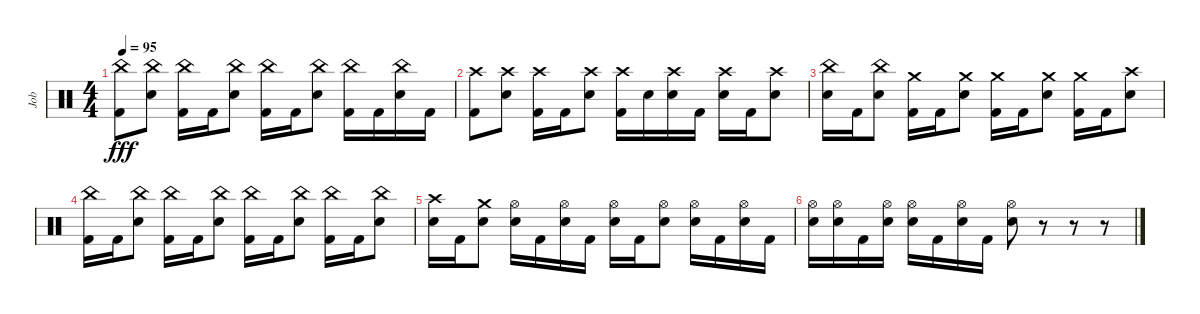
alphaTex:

\track ("Job" "Job") {instrument percussion}
\staff {score}
\articulation defaults
\ts (4 4)
\tempo 95
\clef neutral
\ks c
("China (hit)" "Kick (hit) 2").8{dy fff} ("China (hit)" "Electric Snare (hit)").8 ("China (hit)" "Kick (hit) 2").16 "Kick (hit) 2".16 ("China (hit)" "Electric Snare (hit)").8 ("China (hit)" "Kick (hit) 2").16 "Kick (hit) 2".16 ("China (hit)" "Electric Snare (hit)").8 ("China (hit)" "Kick (hit) 2").16 "Kick (hit) 2".16 ("China (hit)" "Electric Snare (hit)").16 "Kick (hit) 2".16 |
("Crash high (hit)" "Kick (hit) 2").8 ("Crash high (hit)" "Electric Snare (hit)").8 ("Crash high (hit)" "Kick (hit) 2").16 "Kick (hit) 2".16 ("Crash high (hit)" "Electric Snare (hit)").8 ("Crash high (hit)" "Kick (hit) 2").16 "Electric Snare (hit)".16 ("Crash high (hit)" "Electric Snare (hit)").16 "Kick (hit) 2".16 ("Crash high (hit)" "Electric Snare (hit)").16 "Kick (hit) 2".16 ("Crash high (hit)" "Electric Snare (hit)").8 |
("China (hit)" "Electric Snare (hit)").16 "Kick (hit) 2".16 ("China (hit)" "Electric Snare (hit)").8 ("Crash medium (hit)" "Kick (hit) 2").16 "Kick (hit) 2".16 ("Crash medium (hit)" "Electric Snare (hit)").8 ("Crash medium (hit)" "Kick (hit) 2").16 "Kick (hit) 2".16 ("Crash medium (hit)" "Electric Snare (hit)").8 ("Crash medium (hit)" "Kick (hit) 2").16 "Kick (hit) 2".16 ("Crash high (hit)" "Electric Snare (hit)").8 |
("China (hit)" "Kick (hit) 2").16 "Kick (hit) 2".16 ("China (hit)" "Electric Snare (hit)").8 ("China (hit)" "Kick (hit) 2").16 "Kick (hit) 2".16 ("China (hit)" "Electric Snare (hit)").8 ("China (hit)" "Kick (hit) 2").16 "Kick (hit) 2".16 ("China (hit)" "Electric Snare (hit)").8 ("China (hit)" "Kick (hit) 2").16 "Kick (hit) 2".16 ("China (hit)" "Electric Snare (hit)").8 |
("Crash high (hit)" "Electric Snare (hit)").16 "Kick (hit) 2".16 ("Crash medium (hit)" "Electric Snare (hit)").8 ("Hi-Hat (open)" "Electric Snare (hit)").16 "Kick (hit) 2".16 ("Hi-Hat (open)" "Electric Snare (hit)").16 "Kick (hit) 2".16 ("Hi-Hat (open)" "Electric Snare (hit)").16 "Kick (hit) 2".16 ("Hi-Hat (open)" "Electric Snare (hit)").8 ("Hi-Hat (open)" "Electric Snare (hit)").16 "Kick (hit) 2".16 ("Hi-Hat (open)" "Electric Snare (hit)").16 "Kick (hit) 2".16 |
("Hi-Hat (open)" "Electric Snare (hit)").16 ("Hi-Hat (open)" "Electric Snare (hit)").16 "Kick (hit) 2".16 ("Hi-Hat (open)" "Electric Snare (hit)").16 ("Hi-Hat (open)" "Electric Snare (hit)").16 "Kick (hit) 2".16 ("Hi-Hat (open)" "Electric Snare (hit)").16 "Kick (hit) 2".16 ("Hi-Hat (open)" "Electric Snare (hit)").8 r.8 r.8 r.8
